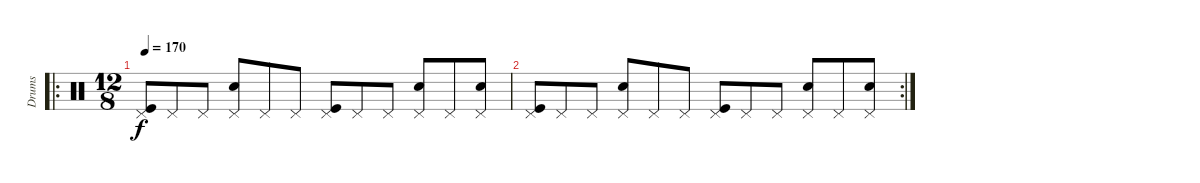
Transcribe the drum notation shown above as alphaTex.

\track ("Drums" "Drums") {instrument percussion}
\staff {score}
\articulation defaults
\ro
\ts (12 8)
\tempo 170
\clef neutral
\ks c
("Pedal Hi-Hat (hit)" "Kick (hit)").8{dy f} "Pedal Hi-Hat (hit)".8 "Pedal Hi-Hat (hit)".8 ("Pedal Hi-Hat (hit)" "Snare (hit) 2").8 "Pedal Hi-Hat (hit)".8 "Pedal Hi-Hat (hit)".8 ("Pedal Hi-Hat (hit)" "Kick (hit)").8 "Pedal Hi-Hat (hit)".8 "Pedal Hi-Hat (hit)".8 ("Pedal Hi-Hat (hit)" "Snare (hit) 2").8 "Pedal Hi-Hat (hit)".8 ("Pedal Hi-Hat (hit)" "Snare (hit) 2").8 |
\rc 2
("Pedal Hi-Hat (hit)" "Kick (hit)").8 "Pedal Hi-Hat (hit)".8 "Pedal Hi-Hat (hit)".8 ("Pedal Hi-Hat (hit)" "Snare (hit) 2").8 "Pedal Hi-Hat (hit)".8 "Pedal Hi-Hat (hit)".8 ("Pedal Hi-Hat (hit)" "Kick (hit)").8 "Pedal Hi-Hat (hit)".8 "Pedal Hi-Hat (hit)".8 ("Pedal Hi-Hat (hit)" "Snare (hit) 2").8 "Pedal Hi-Hat (hit)".8 ("Pedal Hi-Hat (hit)" "Snare (hit) 2").8
